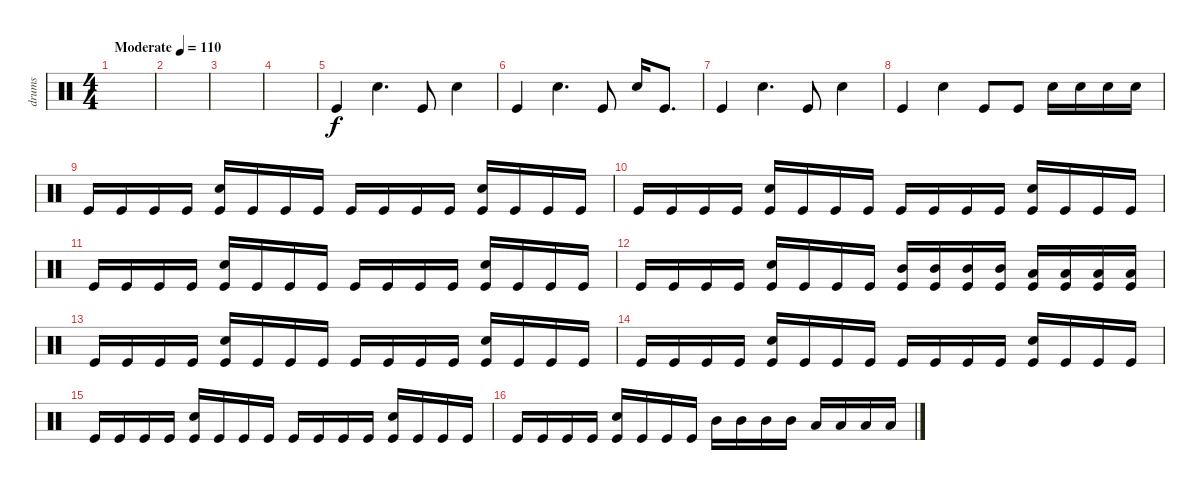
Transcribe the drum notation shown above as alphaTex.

\track ("drums" "drums") {instrument percussion}
\staff {score}
\articulation defaults
\ts (4 4)
\tempo (110 "Moderate")
\clef neutral
\ks c
|
|
|
|
"Kick (hit)".4 "Electric Snare (hit)".4{d} "Kick (hit)".8 "Electric Snare (hit)".4 |
"Kick (hit)".4 "Electric Snare (hit)".4{d} "Kick (hit)".8 "Electric Snare (hit)".16 "Kick (hit)".8{d} |
"Kick (hit)".4 "Electric Snare (hit)".4{d} "Kick (hit)".8 "Electric Snare (hit)".4 |
"Kick (hit)".4 "Electric Snare (hit)".4 "Kick (hit)".8 "Kick (hit)".8 "Electric Snare (hit)".16 "Electric Snare (hit)".16 "Electric Snare (hit)".16 "Electric Snare (hit)".16 |
"Kick (hit)".16 "Kick (hit)".16 "Kick (hit)".16 "Kick (hit)".16 ("Electric Snare (hit)" "Kick (hit)").16 "Kick (hit)".16 "Kick (hit)".16 "Kick (hit)".16 "Kick (hit)".16 "Kick (hit)".16 "Kick (hit)".16 "Kick (hit)".16 ("Electric Snare (hit)" "Kick (hit)").16 "Kick (hit)".16 "Kick (hit)".16 "Kick (hit)".16 |
"Kick (hit)".16 "Kick (hit)".16 "Kick (hit)".16 "Kick (hit)".16 ("Electric Snare (hit)" "Kick (hit)").16 "Kick (hit)".16 "Kick (hit)".16 "Kick (hit)".16 "Kick (hit)".16 "Kick (hit)".16 "Kick (hit)".16 "Kick (hit)".16 ("Electric Snare (hit)" "Kick (hit)").16 "Kick (hit)".16 "Kick (hit)".16 "Kick (hit)".16 |
"Kick (hit)".16 "Kick (hit)".16 "Kick (hit)".16 "Kick (hit)".16 ("Electric Snare (hit)" "Kick (hit)").16 "Kick (hit)".16 "Kick (hit)".16 "Kick (hit)".16 "Kick (hit)".16 "Kick (hit)".16 "Kick (hit)".16 "Kick (hit)".16 ("Electric Snare (hit)" "Kick (hit)").16 "Kick (hit)".16 "Kick (hit)".16 "Kick (hit)".16 |
"Kick (hit)".16 "Kick (hit)".16 "Kick (hit)".16 "Kick (hit)".16 ("Electric Snare (hit)" "Kick (hit)").16 "Kick (hit)".16 "Kick (hit)".16 "Kick (hit)".16 ("Mid Tom (hit)" "Kick (hit)").16 ("Mid Tom (hit)" "Kick (hit)").16 ("Mid Tom (hit)" "Kick (hit)").16 ("Mid Tom (hit)" "Kick (hit)").16 ("Low Tom (hit)" "Kick (hit)").16 ("Low Tom (hit)" "Kick (hit)").16 ("Low Tom (hit)" "Kick (hit)").16 ("Low Tom (hit)" "Kick (hit)").16 |
"Kick (hit)".16 "Kick (hit)".16 "Kick (hit)".16 "Kick (hit)".16 ("Electric Snare (hit)" "Kick (hit)").16 "Kick (hit)".16 "Kick (hit)".16 "Kick (hit)".16 "Kick (hit)".16 "Kick (hit)".16 "Kick (hit)".16 "Kick (hit)".16 ("Electric Snare (hit)" "Kick (hit)").16 "Kick (hit)".16 "Kick (hit)".16 "Kick (hit)".16 |
"Kick (hit)".16 "Kick (hit)".16 "Kick (hit)".16 "Kick (hit)".16 ("Electric Snare (hit)" "Kick (hit)").16 "Kick (hit)".16 "Kick (hit)".16 "Kick (hit)".16 "Kick (hit)".16 "Kick (hit)".16 "Kick (hit)".16 "Kick (hit)".16 ("Electric Snare (hit)" "Kick (hit)").16 "Kick (hit)".16 "Kick (hit)".16 "Kick (hit)".16 |
"Kick (hit)".16 "Kick (hit)".16 "Kick (hit)".16 "Kick (hit)".16 ("Electric Snare (hit)" "Kick (hit)").16 "Kick (hit)".16 "Kick (hit)".16 "Kick (hit)".16 "Kick (hit)".16 "Kick (hit)".16 "Kick (hit)".16 "Kick (hit)".16 ("Electric Snare (hit)" "Kick (hit)").16 "Kick (hit)".16 "Kick (hit)".16 "Kick (hit)".16 |
"Kick (hit)".16 "Kick (hit)".16 "Kick (hit)".16 "Kick (hit)".16 ("Electric Snare (hit)" "Kick (hit)").16 "Kick (hit)".16 "Kick (hit)".16 "Kick (hit)".16 "Mid Tom (hit)".16 "Mid Tom (hit)".16 "Mid Tom (hit)".16 "Mid Tom (hit)".16 "Low Tom (hit)".16 "Low Tom (hit)".16 "Low Tom (hit)".16 "Low Tom (hit)".16
